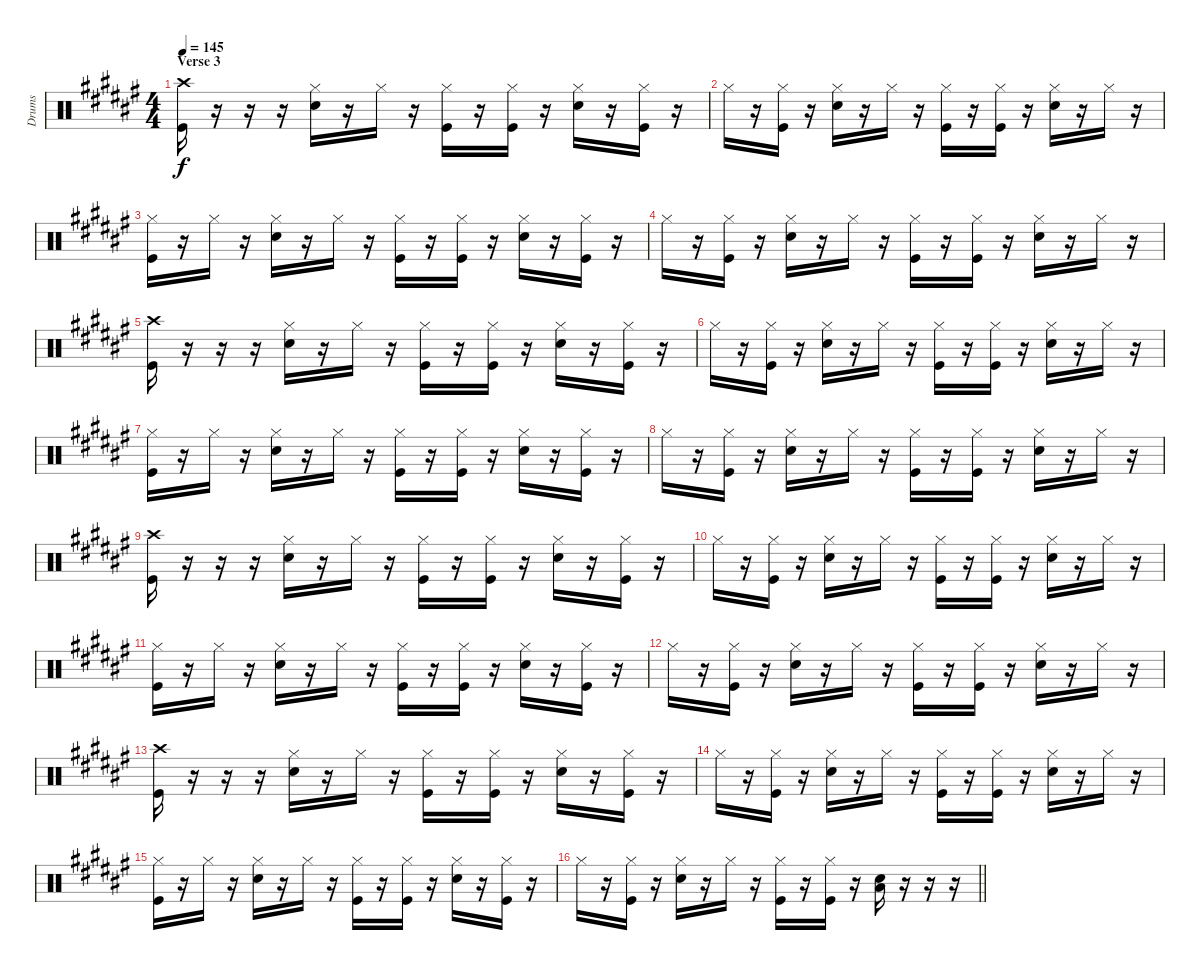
\track ("Drums" "Drums") {instrument percussion}
\staff {score}
\articulation defaults
\ts (4 4)
\section ("" "Verse 3")
\tempo 145
\clef neutral
\ks f#
("Kick (hit)" "Crash high (hit)").16{dy f} r.16 r.16 r.16 ("Hi-Hat (closed)" "Snare (hit) 2").16 r.16 "Hi-Hat (closed)".16 r.16 ("Hi-Hat (closed)" "Kick (hit)").16 r.16 ("Hi-Hat (closed)" "Kick (hit)").16 r.16 ("Hi-Hat (closed)" "Snare (hit) 2").16 r.16 ("Hi-Hat (closed)" "Kick (hit)").16 r.16 |
"Hi-Hat (closed)".16 r.16 ("Hi-Hat (closed)" "Kick (hit)").16 r.16 ("Hi-Hat (closed)" "Snare (hit) 2").16 r.16 "Hi-Hat (closed)".16 r.16 ("Hi-Hat (closed)" "Kick (hit)").16 r.16 ("Hi-Hat (closed)" "Kick (hit)").16 r.16 ("Hi-Hat (closed)" "Snare (hit) 2").16 r.16 "Hi-Hat (closed)".16 r.16 |
("Hi-Hat (closed)" "Kick (hit)").16 r.16 "Hi-Hat (closed)".16 r.16 ("Hi-Hat (closed)" "Snare (hit) 2").16 r.16 "Hi-Hat (closed)".16 r.16 ("Hi-Hat (closed)" "Kick (hit)").16 r.16 ("Hi-Hat (closed)" "Kick (hit)").16 r.16 ("Hi-Hat (closed)" "Snare (hit) 2").16 r.16 ("Hi-Hat (closed)" "Kick (hit)").16 r.16 |
"Hi-Hat (closed)".16 r.16 ("Hi-Hat (closed)" "Kick (hit)").16 r.16 ("Hi-Hat (closed)" "Snare (hit) 2").16 r.16 "Hi-Hat (closed)".16 r.16 ("Hi-Hat (closed)" "Kick (hit)").16 r.16 ("Hi-Hat (closed)" "Kick (hit)").16 r.16 ("Hi-Hat (closed)" "Snare (hit) 2").16 r.16 "Hi-Hat (closed)".16 r.16 |
("Kick (hit)" "Crash high (hit)").16 r.16 r.16 r.16 ("Hi-Hat (closed)" "Snare (hit) 2").16 r.16 "Hi-Hat (closed)".16 r.16 ("Hi-Hat (closed)" "Kick (hit)").16 r.16 ("Hi-Hat (closed)" "Kick (hit)").16 r.16 ("Hi-Hat (closed)" "Snare (hit) 2").16 r.16 ("Hi-Hat (closed)" "Kick (hit)").16 r.16 |
"Hi-Hat (closed)".16 r.16 ("Hi-Hat (closed)" "Kick (hit)").16 r.16 ("Hi-Hat (closed)" "Snare (hit) 2").16 r.16 "Hi-Hat (closed)".16 r.16 ("Hi-Hat (closed)" "Kick (hit)").16 r.16 ("Hi-Hat (closed)" "Kick (hit)").16 r.16 ("Hi-Hat (closed)" "Snare (hit) 2").16 r.16 "Hi-Hat (closed)".16 r.16 |
("Hi-Hat (closed)" "Kick (hit)").16 r.16 "Hi-Hat (closed)".16 r.16 ("Hi-Hat (closed)" "Snare (hit) 2").16 r.16 "Hi-Hat (closed)".16 r.16 ("Hi-Hat (closed)" "Kick (hit)").16 r.16 ("Hi-Hat (closed)" "Kick (hit)").16 r.16 ("Hi-Hat (closed)" "Snare (hit) 2").16 r.16 ("Hi-Hat (closed)" "Kick (hit)").16 r.16 |
"Hi-Hat (closed)".16 r.16 ("Hi-Hat (closed)" "Kick (hit)").16 r.16 ("Hi-Hat (closed)" "Snare (hit) 2").16 r.16 "Hi-Hat (closed)".16 r.16 ("Hi-Hat (closed)" "Kick (hit)").16 r.16 ("Hi-Hat (closed)" "Kick (hit)").16 r.16 ("Hi-Hat (closed)" "Snare (hit) 2").16 r.16 "Hi-Hat (closed)".16 r.16 |
("Kick (hit)" "Crash high (hit)").16 r.16 r.16 r.16 ("Hi-Hat (closed)" "Snare (hit) 2").16 r.16 "Hi-Hat (closed)".16 r.16 ("Hi-Hat (closed)" "Kick (hit)").16 r.16 ("Hi-Hat (closed)" "Kick (hit)").16 r.16 ("Hi-Hat (closed)" "Snare (hit) 2").16 r.16 ("Hi-Hat (closed)" "Kick (hit)").16 r.16 |
"Hi-Hat (closed)".16 r.16 ("Hi-Hat (closed)" "Kick (hit)").16 r.16 ("Hi-Hat (closed)" "Snare (hit) 2").16 r.16 "Hi-Hat (closed)".16 r.16 ("Hi-Hat (closed)" "Kick (hit)").16 r.16 ("Hi-Hat (closed)" "Kick (hit)").16 r.16 ("Hi-Hat (closed)" "Snare (hit) 2").16 r.16 "Hi-Hat (closed)".16 r.16 |
("Hi-Hat (closed)" "Kick (hit)").16 r.16 "Hi-Hat (closed)".16 r.16 ("Hi-Hat (closed)" "Snare (hit) 2").16 r.16 "Hi-Hat (closed)".16 r.16 ("Hi-Hat (closed)" "Kick (hit)").16 r.16 ("Hi-Hat (closed)" "Kick (hit)").16 r.16 ("Hi-Hat (closed)" "Snare (hit) 2").16 r.16 ("Hi-Hat (closed)" "Kick (hit)").16 r.16 |
"Hi-Hat (closed)".16 r.16 ("Hi-Hat (closed)" "Kick (hit)").16 r.16 ("Hi-Hat (closed)" "Snare (hit) 2").16 r.16 "Hi-Hat (closed)".16 r.16 ("Hi-Hat (closed)" "Kick (hit)").16 r.16 ("Hi-Hat (closed)" "Kick (hit)").16 r.16 ("Hi-Hat (closed)" "Snare (hit) 2").16 r.16 "Hi-Hat (closed)".16 r.16 |
("Kick (hit)" "Crash high (hit)").16 r.16 r.16 r.16 ("Hi-Hat (closed)" "Snare (hit) 2").16 r.16 "Hi-Hat (closed)".16 r.16 ("Hi-Hat (closed)" "Kick (hit)").16 r.16 ("Hi-Hat (closed)" "Kick (hit)").16 r.16 ("Hi-Hat (closed)" "Snare (hit) 2").16 r.16 ("Hi-Hat (closed)" "Kick (hit)").16 r.16 |
"Hi-Hat (closed)".16 r.16 ("Hi-Hat (closed)" "Kick (hit)").16 r.16 ("Hi-Hat (closed)" "Snare (hit) 2").16 r.16 "Hi-Hat (closed)".16 r.16 ("Hi-Hat (closed)" "Kick (hit)").16 r.16 ("Hi-Hat (closed)" "Kick (hit)").16 r.16 ("Hi-Hat (closed)" "Snare (hit) 2").16 r.16 "Hi-Hat (closed)".16 r.16 |
("Hi-Hat (closed)" "Kick (hit)").16 r.16 "Hi-Hat (closed)".16 r.16 ("Hi-Hat (closed)" "Snare (hit) 2").16 r.16 "Hi-Hat (closed)".16 r.16 ("Hi-Hat (closed)" "Kick (hit)").16 r.16 ("Hi-Hat (closed)" "Kick (hit)").16 r.16 ("Hi-Hat (closed)" "Snare (hit) 2").16 r.16 ("Hi-Hat (closed)" "Kick (hit)").16 r.16 |
\barLineRight lightlight "Hi-Hat (closed)".16
r.16 ("Hi-Hat (closed)" "Kick (hit)").16 r.16 ("Hi-Hat (closed)" "Snare (hit) 2").16 r.16 "Hi-Hat (closed)".16 r.16 ("Hi-Hat (closed)" "Kick (hit)").16 r.16 ("Hi-Hat (closed)" "Kick (hit)").16 r.16 ("Snare (hit) 2" "Low Floor Tom (hit)").16 r.16 r.16 r.16
